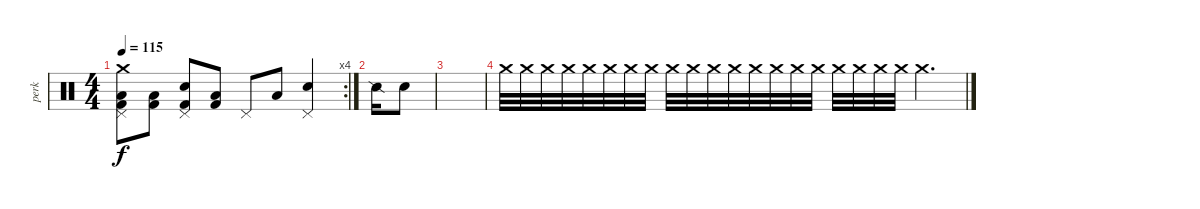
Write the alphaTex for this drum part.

\track ("perk" "perk") {instrument percussion}
\staff {score}
\articulation defaults
\rc 4
\ts (4 4)
\tempo 115
\clef neutral
\ks c
("Crash medium (hit)" "Pedal Hi-Hat (hit)" "Low Floor Tom (hit)" "Kick (hit) 2").8{dy f} ("Low Floor Tom (hit)" "Kick (hit) 2").8 ("Pedal Hi-Hat (hit)" "Snare (hit) 2" "Kick (hit) 2").8 ("Low Floor Tom (hit)" "Kick (hit) 2").8 "Pedal Hi-Hat (hit)".8 "Low Floor Tom (hit)".8 ("Pedal Hi-Hat (hit)" "Snare (hit) 2").4 |
"Snare (side stick) 2".16 "Snare (hit) 2".8 |
|
"Crash medium (hit)".32 "Crash medium (hit)".32 "Crash medium (hit)".32 "Crash medium (hit)".32 "Crash medium (hit)".32 "Crash medium (hit)".32 "Crash medium (hit)".32 "Crash medium (hit)".32 "Crash medium (hit)".32 "Crash medium (hit)".32 "Crash medium (hit)".32 "Crash medium (hit)".32 "Crash medium (hit)".32 "Crash medium (hit)".32 "Crash medium (hit)".32 "Crash medium (hit)".32 "Crash medium (hit)".32 "Crash medium (hit)".32 "Crash medium (hit)".32 "Crash medium (hit)".32 "Crash medium (hit)".4{d}
